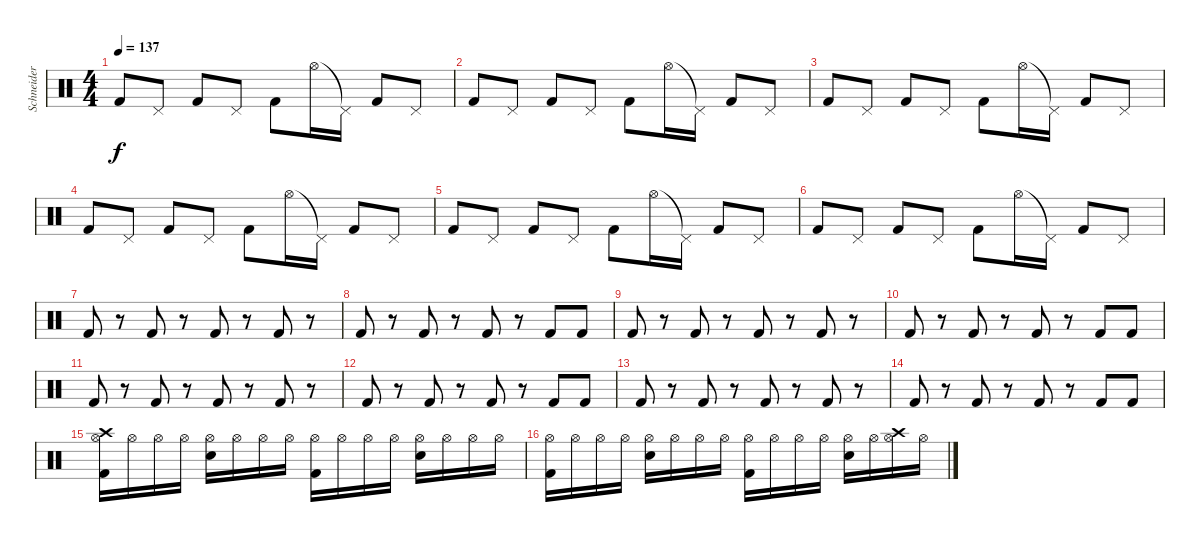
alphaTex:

\track ("Schneider" "Schneider") {instrument percussion}
\staff {score}
\articulation defaults
\ts (4 4)
\tempo 137
\clef neutral
\ks c "Kick (hit) 2".8{dy f} "Pedal Hi-Hat (hit)".8 "Kick (hit) 2".8 "Pedal Hi-Hat (hit)".8 "Kick (hit) 2".8 "Hi-Hat (open)".16 "Pedal Hi-Hat (hit)"{t}.16 "Kick (hit) 2".8 "Pedal Hi-Hat (hit)".8
|
"Kick (hit) 2".8 "Pedal Hi-Hat (hit)".8 "Kick (hit) 2".8 "Pedal Hi-Hat (hit)".8 "Kick (hit) 2".8 "Hi-Hat (open)".16 "Pedal Hi-Hat (hit)"{t}.16 "Kick (hit) 2".8 "Pedal Hi-Hat (hit)".8 |
"Kick (hit) 2".8 "Pedal Hi-Hat (hit)".8 "Kick (hit) 2".8 "Pedal Hi-Hat (hit)".8 "Kick (hit) 2".8 "Hi-Hat (open)".16 "Pedal Hi-Hat (hit)"{t}.16 "Kick (hit) 2".8 "Pedal Hi-Hat (hit)".8 |
"Kick (hit) 2".8 "Pedal Hi-Hat (hit)".8 "Kick (hit) 2".8 "Pedal Hi-Hat (hit)".8 "Kick (hit) 2".8 "Hi-Hat (open)".16 "Pedal Hi-Hat (hit)"{t}.16 "Kick (hit) 2".8 "Pedal Hi-Hat (hit)".8 |
"Kick (hit) 2".8 "Pedal Hi-Hat (hit)".8 "Kick (hit) 2".8 "Pedal Hi-Hat (hit)".8 "Kick (hit) 2".8 "Hi-Hat (open)".16 "Pedal Hi-Hat (hit)"{t}.16 "Kick (hit) 2".8 "Pedal Hi-Hat (hit)".8 |
"Kick (hit) 2".8 "Pedal Hi-Hat (hit)".8 "Kick (hit) 2".8 "Pedal Hi-Hat (hit)".8 "Kick (hit) 2".8 "Hi-Hat (open)".16 "Pedal Hi-Hat (hit)"{t}.16 "Kick (hit) 2".8 "Pedal Hi-Hat (hit)".8 |
"Kick (hit) 2".8 r.8 "Kick (hit) 2".8 r.8 "Kick (hit) 2".8 r.8 "Kick (hit) 2".8 r.8 |
"Kick (hit) 2".8 r.8 "Kick (hit) 2".8 r.8 "Kick (hit) 2".8 r.8 "Kick (hit) 2".8 "Kick (hit) 2".8 |
"Kick (hit) 2".8 r.8 "Kick (hit) 2".8 r.8 "Kick (hit) 2".8 r.8 "Kick (hit) 2".8 r.8 |
"Kick (hit) 2".8 r.8 "Kick (hit) 2".8 r.8 "Kick (hit) 2".8 r.8 "Kick (hit) 2".8 "Kick (hit) 2".8 |
"Kick (hit) 2".8 r.8 "Kick (hit) 2".8 r.8 "Kick (hit) 2".8 r.8 "Kick (hit) 2".8 r.8 |
"Kick (hit) 2".8 r.8 "Kick (hit) 2".8 r.8 "Kick (hit) 2".8 r.8 "Kick (hit) 2".8 "Kick (hit) 2".8 |
"Kick (hit) 2".8 r.8 "Kick (hit) 2".8 r.8 "Kick (hit) 2".8 r.8 "Kick (hit) 2".8 r.8 |
"Kick (hit) 2".8 r.8 "Kick (hit) 2".8 r.8 "Kick (hit) 2".8 r.8 "Kick (hit) 2".8 "Kick (hit) 2".8 |
("Crash high (hit)" "Hi-Hat (open)" "Kick (hit) 2").16 "Hi-Hat (open)".16 "Hi-Hat (open)".16 "Hi-Hat (open)".16 ("Hi-Hat (open)" "Electric Snare (hit)").16 "Hi-Hat (open)".16 "Hi-Hat (open)".16 "Hi-Hat (open)".16 ("Hi-Hat (open)" "Kick (hit) 2").16 "Hi-Hat (open)".16 "Hi-Hat (open)".16 "Hi-Hat (open)".16 ("Hi-Hat (open)" "Electric Snare (hit)").16 "Hi-Hat (open)".16 "Hi-Hat (open)".16 "Hi-Hat (open)".16 |
("Hi-Hat (open)" "Kick (hit) 2").16 "Hi-Hat (open)".16 "Hi-Hat (open)".16 "Hi-Hat (open)".16 ("Hi-Hat (open)" "Electric Snare (hit)").16 "Hi-Hat (open)".16 "Hi-Hat (open)".16 "Hi-Hat (open)".16 ("Hi-Hat (open)" "Kick (hit) 2").16 "Hi-Hat (open)".16 "Hi-Hat (open)".16 "Hi-Hat (open)".16 ("Hi-Hat (open)" "Electric Snare (hit)").16 "Hi-Hat (open)".16 ("Crash high (hit)" "Hi-Hat (open)").16 "Hi-Hat (open)".16
